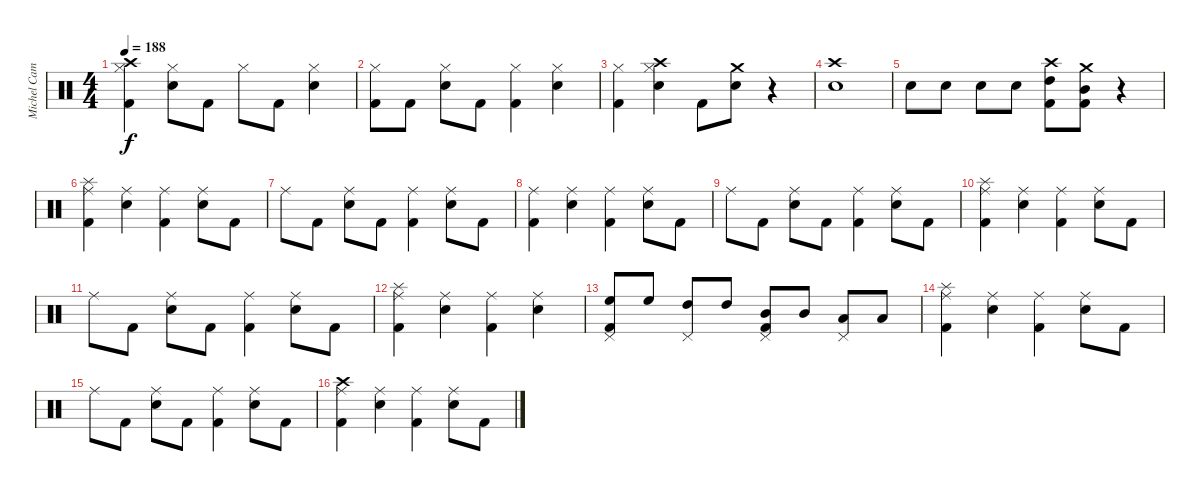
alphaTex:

\track ("Michel Camiade" "Michel Cam") {instrument percussion}
\staff {score}
\articulation defaults
\ts (4 4)
\tempo 188
\clef neutral
\ks c
("Crash high (hit)" "Hi-Hat (closed)" "Kick (hit) 2").4{dy f} ("Hi-Hat (closed)" "Snare (hit) 2").8 "Kick (hit) 2".8 "Hi-Hat (closed)".8 "Kick (hit) 2".8 ("Hi-Hat (closed)" "Snare (hit) 2").4 |
("Hi-Hat (closed)" "Kick (hit) 2").8 "Kick (hit) 2".8 ("Hi-Hat (closed)" "Snare (hit) 2").8 "Kick (hit) 2".8 ("Hi-Hat (closed)" "Kick (hit) 2").4 ("Hi-Hat (closed)" "Snare (hit) 2").4 |
("Hi-Hat (closed)" "Kick (hit) 2").4 ("Crash high (hit)" "Hi-Hat (closed)" "Snare (hit) 2").4 "Kick (hit) 2".8 ("Crash medium (hit)" "Snare (hit) 2").8 r.4 |
("Crash high (hit)" "Snare (hit) 2").1 |
"Snare (hit) 2".8 "Snare (hit) 2".8 "Snare (hit) 2".8 "Snare (hit) 2".8 ("Crash high (hit)" "High Tom (hit)" "Kick (hit) 2").8 ("Crash medium (hit)" "Mid Tom (hit)" "Kick (hit) 2").8 r.4 |
("Splash (hit)" "Ride (middle)" "Kick (hit) 2").4 ("Ride (middle)" "Snare (hit) 2").4 ("Ride (middle)" "Kick (hit) 2").4 ("Ride (middle)" "Snare (hit) 2").8 "Kick (hit) 2".8 |
"Ride (middle)".8 "Kick (hit) 2".8 ("Ride (middle)" "Snare (hit) 2").8 "Kick (hit) 2".8 ("Ride (middle)" "Kick (hit) 2").4 ("Ride (middle)" "Snare (hit) 2").8 "Kick (hit) 2".8 |
("Ride (middle)" "Kick (hit) 2").4 ("Ride (middle)" "Snare (hit) 2").4 ("Ride (middle)" "Kick (hit) 2").4 ("Ride (middle)" "Snare (hit) 2").8 "Kick (hit) 2".8 |
"Ride (middle)".8 "Kick (hit) 2".8 ("Ride (middle)" "Snare (hit) 2").8 "Kick (hit) 2".8 ("Ride (middle)" "Kick (hit) 2").4 ("Ride (middle)" "Snare (hit) 2").8 "Kick (hit) 2".8 |
("Splash (hit)" "Ride (middle)" "Kick (hit) 2").4 ("Ride (middle)" "Snare (hit) 2").4 ("Ride (middle)" "Kick (hit) 2").4 ("Ride (middle)" "Snare (hit) 2").8 "Kick (hit) 2".8 |
"Ride (middle)".8 "Kick (hit) 2".8 ("Ride (middle)" "Snare (hit) 2").8 "Kick (hit) 2".8 ("Ride (middle)" "Kick (hit) 2").4 ("Ride (middle)" "Snare (hit) 2").8 "Kick (hit) 2".8 |
("Splash (hit)" "Ride (middle)" "Kick (hit) 2").4 ("Ride (middle)" "Snare (hit) 2").4 ("Ride (middle)" "Kick (hit) 2").4 ("Ride (middle)" "Snare (hit) 2").4 |
("High Floor Tom (hit)" "Pedal Hi-Hat (hit)" "Kick (hit) 2").8 "High Floor Tom (hit)".8 ("High Tom (hit)" "Pedal Hi-Hat (hit)").8 "High Tom (hit)".8 ("Mid Tom (hit)" "Pedal Hi-Hat (hit)" "Kick (hit) 2").8 "Mid Tom (hit)".8 ("Low Tom (hit)" "Pedal Hi-Hat (hit)").8 "Low Tom (hit)".8 |
("Splash (hit)" "Ride (middle)" "Kick (hit) 2").4 ("Ride (middle)" "Snare (hit) 2").4 ("Ride (middle)" "Kick (hit) 2").4 ("Ride (middle)" "Snare (hit) 2").8 "Kick (hit) 2".8 |
"Ride (middle)".8 "Kick (hit) 2".8 ("Ride (middle)" "Snare (hit) 2").8 "Kick (hit) 2".8 ("Ride (middle)" "Kick (hit) 2").4 ("Ride (middle)" "Snare (hit) 2").8 "Kick (hit) 2".8 |
("Crash high (hit)" "Ride (middle)" "Kick (hit) 2").4 ("Ride (middle)" "Snare (hit) 2").4 ("Ride (middle)" "Kick (hit) 2").4 ("Ride (middle)" "Snare (hit) 2").8 "Kick (hit) 2".8
